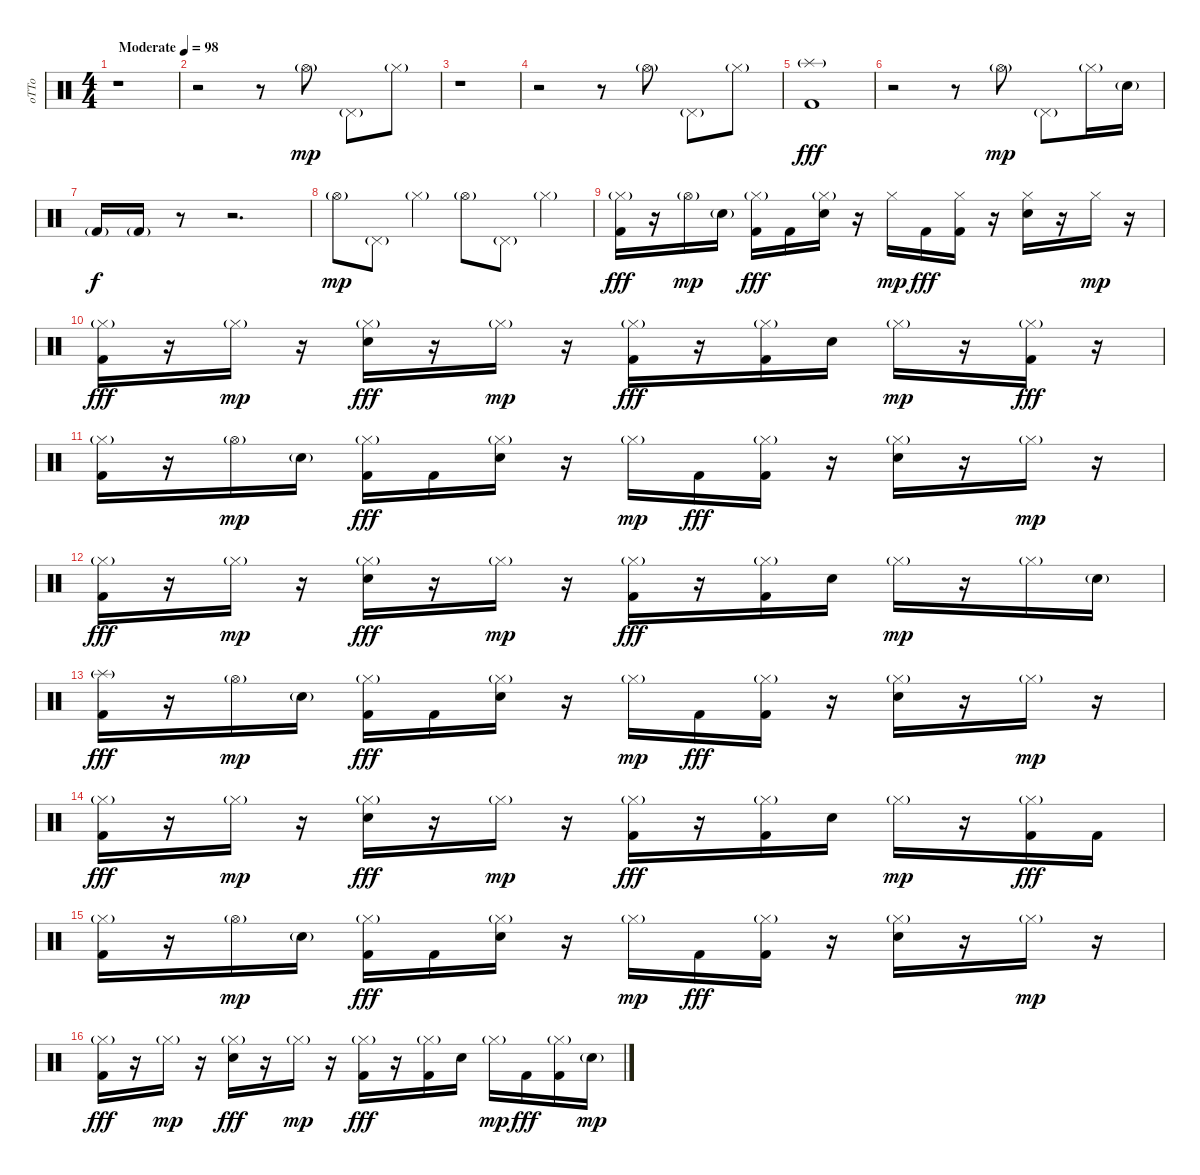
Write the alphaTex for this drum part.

\track ("oTTo" "oTTo") {instrument percussion}
\staff {score}
\articulation defaults
\ts (4 4)
\tempo (98 "Moderate")
\clef neutral
\ks c
r.1{dy mp} |
r.2 r.8 "Hi-Hat (open)"{g}.8 "Pedal Hi-Hat (hit)"{g}.8 "Hi-Hat (closed)"{g}.8 |
r.1 |
r.2 r.8 "Hi-Hat (open)"{g}.8 "Pedal Hi-Hat (hit)"{g}.8 "Hi-Hat (closed)"{g}.8 |
("Splash (hit)"{g} "Kick (hit) 2").1{dy fff} |
r.2 r.8 "Hi-Hat (open)"{g}.8{dy mp} "Pedal Hi-Hat (hit)"{g}.8 "Hi-Hat (closed)"{g}.16 "Snare (hit) 2"{g}.16 |
"Kick (hit) 2"{g}.16{dy f} "Kick (hit) 2"{g}.16 r.8 r.2{d} |
"Hi-Hat (open)"{g}.8{dy mp} "Pedal Hi-Hat (hit)"{g}.8 "Hi-Hat (closed)"{g}.4 "Hi-Hat (open)"{g}.8 "Pedal Hi-Hat (hit)"{g}.8 "Hi-Hat (closed)"{g}.4 |
("Hi-Hat (closed)"{g} "Kick (hit) 2").16{dy fff} r.16 "Hi-Hat (open)"{g}.16{dy mp} "Snare (hit) 2"{g}.16 ("Hi-Hat (closed)"{g} "Kick (hit) 2").16{dy fff} "Kick (hit) 2".16 ("Hi-Hat (closed)"{g} "Snare (hit) 2").16 r.16 "Hi-Hat (closed)".16{dy mp} "Kick (hit) 2".16{dy fff} ("Hi-Hat (closed)" "Kick (hit) 2").16 r.16 ("Hi-Hat (closed)" "Snare (hit) 2").16 r.16 "Hi-Hat (closed)".16{dy mp} r.16 |
("Hi-Hat (closed)"{g} "Kick (hit) 2").16{dy fff} r.16 "Hi-Hat (closed)"{g}.16{dy mp} r.16 ("Hi-Hat (closed)"{g} "Snare (hit) 2").16{dy fff} r.16 "Hi-Hat (closed)"{g}.16{dy mp} r.16 ("Hi-Hat (closed)"{g} "Kick (hit) 2").16{dy fff} r.16 ("Hi-Hat (closed)"{g} "Kick (hit) 2").16 "Snare (hit) 2".16 "Hi-Hat (closed)"{g}.16{dy mp} r.16 ("Hi-Hat (closed)"{g} "Kick (hit) 2").16{dy fff} r.16 |
("Hi-Hat (closed)"{g} "Kick (hit) 2").16 r.16 "Hi-Hat (open)"{g}.16{dy mp} "Snare (hit) 2"{g}.16 ("Hi-Hat (closed)"{g} "Kick (hit) 2").16{dy fff} "Kick (hit) 2".16 ("Hi-Hat (closed)"{g} "Snare (hit) 2").16 r.16 "Hi-Hat (closed)"{g}.16{dy mp} "Kick (hit) 2".16{dy fff} ("Hi-Hat (closed)"{g} "Kick (hit) 2").16 r.16 ("Hi-Hat (closed)"{g} "Snare (hit) 2").16 r.16 "Hi-Hat (closed)"{g}.16{dy mp} r.16 |
("Hi-Hat (closed)"{g} "Kick (hit) 2").16{dy fff} r.16 "Hi-Hat (closed)"{g}.16{dy mp} r.16 ("Hi-Hat (closed)"{g} "Snare (hit) 2").16{dy fff} r.16 "Hi-Hat (closed)"{g}.16{dy mp} r.16 ("Hi-Hat (closed)"{g} "Kick (hit) 2").16{dy fff} r.16 ("Hi-Hat (closed)"{g} "Kick (hit) 2").16 "Snare (hit) 2".16 "Hi-Hat (closed)"{g}.16{dy mp} r.16 "Hi-Hat (closed)"{g}.16 "Snare (hit) 2"{g}.16 |
("Splash (hit)"{g} "Kick (hit) 2").16{dy fff} r.16 "Hi-Hat (open)"{g}.16{dy mp} "Snare (hit) 2"{g}.16 ("Hi-Hat (closed)"{g} "Kick (hit) 2").16{dy fff} "Kick (hit) 2".16 ("Hi-Hat (closed)"{g} "Snare (hit) 2").16 r.16 "Hi-Hat (closed)"{g}.16{dy mp} "Kick (hit) 2".16{dy fff} ("Hi-Hat (closed)"{g} "Kick (hit) 2").16 r.16 ("Hi-Hat (closed)"{g} "Snare (hit) 2").16 r.16 "Hi-Hat (closed)"{g}.16{dy mp} r.16 |
("Hi-Hat (closed)"{g} "Kick (hit) 2").16{dy fff} r.16 "Hi-Hat (closed)"{g}.16{dy mp} r.16 ("Hi-Hat (closed)"{g} "Snare (hit) 2").16{dy fff} r.16 "Hi-Hat (closed)"{g}.16{dy mp} r.16 ("Hi-Hat (closed)"{g} "Kick (hit) 2").16{dy fff} r.16 ("Hi-Hat (closed)"{g} "Kick (hit) 2").16 "Snare (hit) 2".16 "Hi-Hat (closed)"{g}.16{dy mp} r.16 ("Hi-Hat (closed)"{g} "Kick (hit) 2").16{dy fff} "Kick (hit) 2".16 |
("Hi-Hat (closed)"{g} "Kick (hit) 2").16 r.16 "Hi-Hat (open)"{g}.16{dy mp} "Snare (hit) 2"{g}.16 ("Hi-Hat (closed)"{g} "Kick (hit) 2").16{dy fff} "Kick (hit) 2".16 ("Hi-Hat (closed)"{g} "Snare (hit) 2").16 r.16 "Hi-Hat (closed)"{g}.16{dy mp} "Kick (hit) 2".16{dy fff} ("Hi-Hat (closed)"{g} "Kick (hit) 2").16 r.16 ("Hi-Hat (closed)"{g} "Snare (hit) 2").16 r.16 "Hi-Hat (closed)"{g}.16{dy mp} r.16 |
("Hi-Hat (closed)"{g} "Kick (hit) 2").16{dy fff} r.16 "Hi-Hat (closed)"{g}.16{dy mp} r.16 ("Hi-Hat (closed)"{g} "Snare (hit) 2").16{dy fff} r.16 "Hi-Hat (closed)"{g}.16{dy mp} r.16 ("Hi-Hat (closed)"{g} "Kick (hit) 2").16{dy fff} r.16 ("Hi-Hat (closed)"{g} "Kick (hit) 2").16 "Snare (hit) 2".16 "Hi-Hat (closed)"{g}.16{dy mp} "Kick (hit) 2".16{dy fff} ("Hi-Hat (closed)"{g} "Kick (hit) 2").16 "Snare (hit) 2"{g}.16{dy mp}
